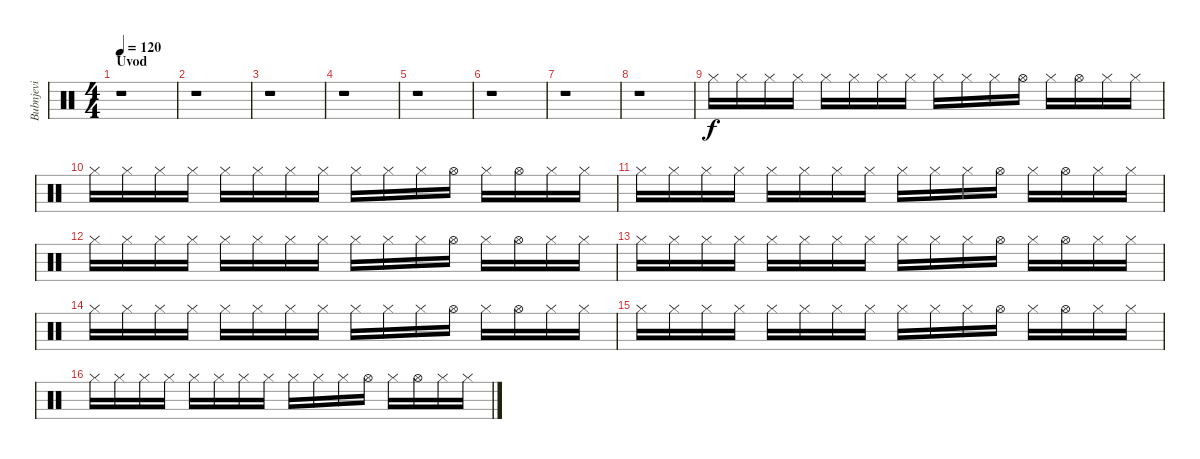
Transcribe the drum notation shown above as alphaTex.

\track ("Bubnjevi" "Bubnjevi") {instrument percussion}
\staff {score}
\articulation defaults
\ts (4 4)
\section ("" "Uvod")
\tempo 120
\clef neutral
\ks c
r.1{dy f} |
r.1 |
r.1 |
r.1 |
r.1 |
r.1 |
r.1 |
r.1 |
"Hi-Hat (closed)".16 "Hi-Hat (closed)".16 "Hi-Hat (closed)".16 "Hi-Hat (closed)".16 "Hi-Hat (closed)".16 "Hi-Hat (closed)".16 "Hi-Hat (closed)".16 "Hi-Hat (closed)".16 "Hi-Hat (closed)".16 "Hi-Hat (closed)".16 "Hi-Hat (closed)".16 "Hi-Hat (open)".16 "Hi-Hat (closed)".16 "Hi-Hat (open)".16 "Hi-Hat (closed)".16 "Hi-Hat (closed)".16 |
"Hi-Hat (closed)".16 "Hi-Hat (closed)".16 "Hi-Hat (closed)".16 "Hi-Hat (closed)".16 "Hi-Hat (closed)".16 "Hi-Hat (closed)".16 "Hi-Hat (closed)".16 "Hi-Hat (closed)".16 "Hi-Hat (closed)".16 "Hi-Hat (closed)".16 "Hi-Hat (closed)".16 "Hi-Hat (open)".16 "Hi-Hat (closed)".16 "Hi-Hat (open)".16 "Hi-Hat (closed)".16 "Hi-Hat (closed)".16 |
"Hi-Hat (closed)".16 "Hi-Hat (closed)".16 "Hi-Hat (closed)".16 "Hi-Hat (closed)".16 "Hi-Hat (closed)".16 "Hi-Hat (closed)".16 "Hi-Hat (closed)".16 "Hi-Hat (closed)".16 "Hi-Hat (closed)".16 "Hi-Hat (closed)".16 "Hi-Hat (closed)".16 "Hi-Hat (open)".16 "Hi-Hat (closed)".16 "Hi-Hat (open)".16 "Hi-Hat (closed)".16 "Hi-Hat (closed)".16 |
"Hi-Hat (closed)".16 "Hi-Hat (closed)".16 "Hi-Hat (closed)".16 "Hi-Hat (closed)".16 "Hi-Hat (closed)".16 "Hi-Hat (closed)".16 "Hi-Hat (closed)".16 "Hi-Hat (closed)".16 "Hi-Hat (closed)".16 "Hi-Hat (closed)".16 "Hi-Hat (closed)".16 "Hi-Hat (open)".16 "Hi-Hat (closed)".16 "Hi-Hat (open)".16 "Hi-Hat (closed)".16 "Hi-Hat (closed)".16 |
"Hi-Hat (closed)".16 "Hi-Hat (closed)".16 "Hi-Hat (closed)".16 "Hi-Hat (closed)".16 "Hi-Hat (closed)".16 "Hi-Hat (closed)".16 "Hi-Hat (closed)".16 "Hi-Hat (closed)".16 "Hi-Hat (closed)".16 "Hi-Hat (closed)".16 "Hi-Hat (closed)".16 "Hi-Hat (open)".16 "Hi-Hat (closed)".16 "Hi-Hat (open)".16 "Hi-Hat (closed)".16 "Hi-Hat (closed)".16 |
"Hi-Hat (closed)".16 "Hi-Hat (closed)".16 "Hi-Hat (closed)".16 "Hi-Hat (closed)".16 "Hi-Hat (closed)".16 "Hi-Hat (closed)".16 "Hi-Hat (closed)".16 "Hi-Hat (closed)".16 "Hi-Hat (closed)".16 "Hi-Hat (closed)".16 "Hi-Hat (closed)".16 "Hi-Hat (open)".16 "Hi-Hat (closed)".16 "Hi-Hat (open)".16 "Hi-Hat (closed)".16 "Hi-Hat (closed)".16 |
"Hi-Hat (closed)".16 "Hi-Hat (closed)".16 "Hi-Hat (closed)".16 "Hi-Hat (closed)".16 "Hi-Hat (closed)".16 "Hi-Hat (closed)".16 "Hi-Hat (closed)".16 "Hi-Hat (closed)".16 "Hi-Hat (closed)".16 "Hi-Hat (closed)".16 "Hi-Hat (closed)".16 "Hi-Hat (open)".16 "Hi-Hat (closed)".16 "Hi-Hat (open)".16 "Hi-Hat (closed)".16 "Hi-Hat (closed)".16 |
"Hi-Hat (closed)".16 "Hi-Hat (closed)".16 "Hi-Hat (closed)".16 "Hi-Hat (closed)".16 "Hi-Hat (closed)".16 "Hi-Hat (closed)".16 "Hi-Hat (closed)".16 "Hi-Hat (closed)".16 "Hi-Hat (closed)".16 "Hi-Hat (closed)".16 "Hi-Hat (closed)".16 "Hi-Hat (open)".16 "Hi-Hat (closed)".16 "Hi-Hat (open)".16 "Hi-Hat (closed)".16 "Hi-Hat (closed)".16
